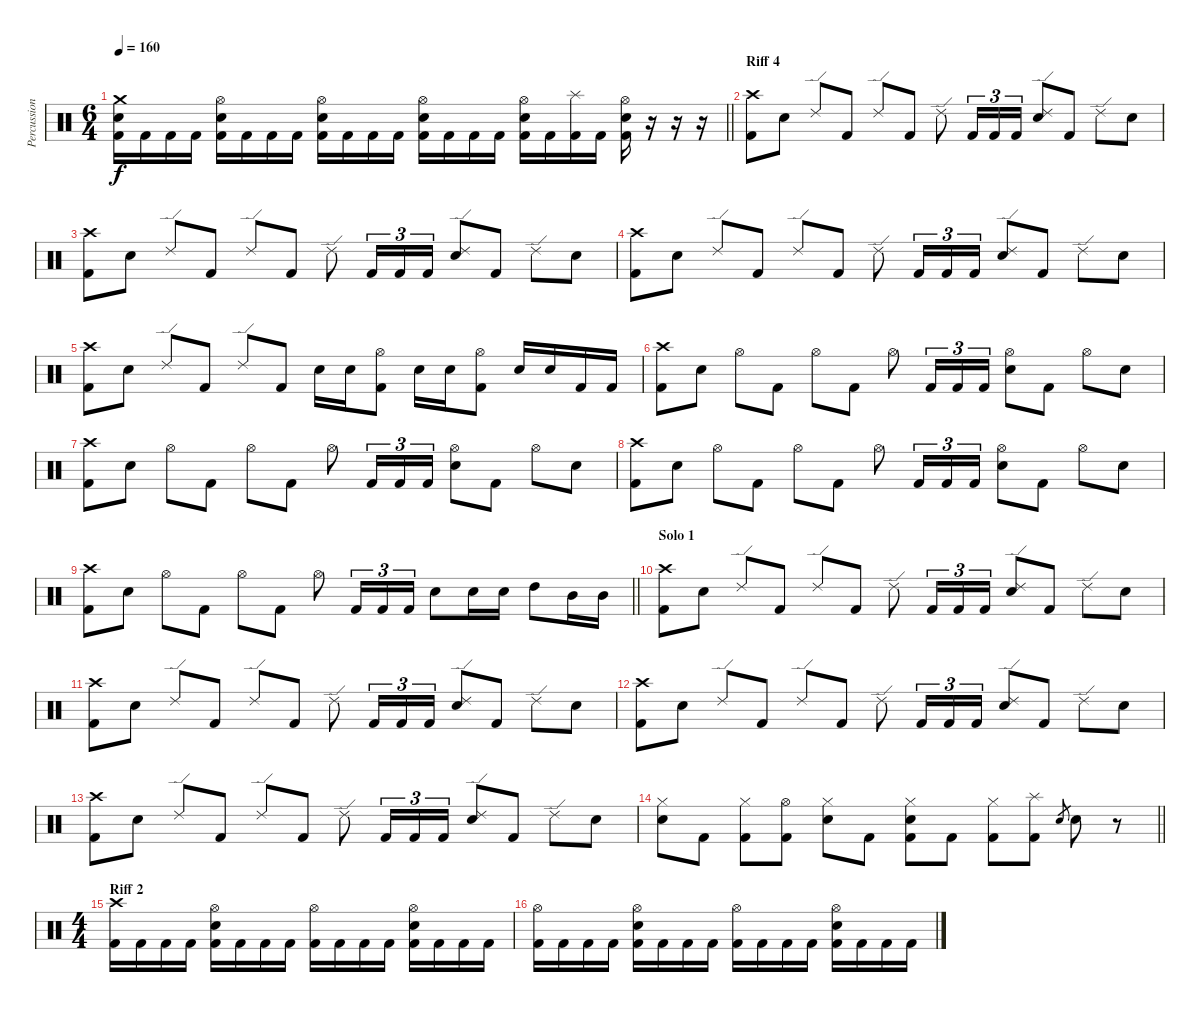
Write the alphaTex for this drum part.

\track ("Percussion" "Percussion") {instrument percussion}
\staff {score}
\articulation defaults
\ts (6 4)
\tempo 160
\clef neutral
\barLineRight lightlight
\ks c
("Snare (hit) 2" "Kick (hit) 2" "Crash medium (hit)").16{dy f} "Kick (hit) 2".16 "Kick (hit) 2".16 "Kick (hit) 2".16 ("Hi-Hat (open)" "Snare (hit) 2" "Kick (hit) 2").16 "Kick (hit) 2".16 "Kick (hit) 2".16 "Kick (hit) 2".16 ("Hi-Hat (open)" "Snare (hit) 2" "Kick (hit) 2").16 "Kick (hit) 2".16 "Kick (hit) 2".16 "Kick (hit) 2".16 ("Hi-Hat (open)" "Snare (hit) 2" "Kick (hit) 2").16 "Kick (hit) 2".16 "Kick (hit) 2".16 "Kick (hit) 2".16 ("Hi-Hat (open)" "Snare (hit) 2" "Kick (hit) 2").16 "Kick (hit) 2".16 ("Splash (hit)" "Kick (hit) 2").16 "Kick (hit) 2".16 ("Snare (hit) 2" "Hi-Hat (open)" "Kick (hit) 2").16 r.16 r.16 r.16 |
\section ("" "Riff 4")
("Crash high (hit)" "Kick (hit) 2").8 "Snare (hit) 2".8 "Ride (edge) 2".8 "Kick (hit) 2".8 "Ride (edge) 2".8 "Kick (hit) 2".8 "Ride (edge) 2".8 "Kick (hit) 2".16{tu (3 2)} "Kick (hit) 2".16{tu (3 2)} "Kick (hit) 2".16{tu (3 2)} ("Ride (edge) 2" "Snare (hit) 2").8 "Kick (hit) 2".8 "Ride (edge) 2".8 "Snare (hit) 2".8 |
("Crash high (hit)" "Kick (hit) 2").8 "Snare (hit) 2".8 "Ride (edge) 2".8 "Kick (hit) 2".8 "Ride (edge) 2".8 "Kick (hit) 2".8 "Ride (edge) 2".8 "Kick (hit) 2".16{tu (3 2)} "Kick (hit) 2".16{tu (3 2)} "Kick (hit) 2".16{tu (3 2)} ("Ride (edge) 2" "Snare (hit) 2").8 "Kick (hit) 2".8 "Ride (edge) 2".8 "Snare (hit) 2".8 |
("Crash high (hit)" "Kick (hit) 2").8 "Snare (hit) 2".8 "Ride (edge) 2".8 "Kick (hit) 2".8 "Ride (edge) 2".8 "Kick (hit) 2".8 "Ride (edge) 2".8 "Kick (hit) 2".16{tu (3 2)} "Kick (hit) 2".16{tu (3 2)} "Kick (hit) 2".16{tu (3 2)} ("Ride (edge) 2" "Snare (hit) 2").8 "Kick (hit) 2".8 "Ride (edge) 2".8 "Snare (hit) 2".8 |
("Crash high (hit)" "Kick (hit) 2").8 "Snare (hit) 2".8 "Ride (edge) 2".8 "Kick (hit) 2".8 "Ride (edge) 2".8 "Kick (hit) 2".8 "Snare (hit) 2".16 "Snare (hit) 2".16 ("Kick (hit) 2" "Hi-Hat (open)").8 "Snare (hit) 2".16 "Snare (hit) 2".16 ("Kick (hit) 2" "Hi-Hat (open)").8 "Snare (hit) 2".16 "Snare (hit) 2".16 "Kick (hit) 2".16 "Kick (hit) 2".16 |
("Crash high (hit)" "Kick (hit) 2").8 "Snare (hit) 2".8 "Hi-Hat (open)".8 "Kick (hit) 2".8 "Hi-Hat (open)".8 "Kick (hit) 2".8 "Hi-Hat (open)".8 "Kick (hit) 2".16{tu (3 2)} "Kick (hit) 2".16{tu (3 2)} "Kick (hit) 2".16{tu (3 2)} ("Hi-Hat (open)" "Snare (hit) 2").8 "Kick (hit) 2".8 "Hi-Hat (open)".8 "Snare (hit) 2".8 |
("Crash high (hit)" "Kick (hit) 2").8 "Snare (hit) 2".8 "Hi-Hat (open)".8 "Kick (hit) 2".8 "Hi-Hat (open)".8 "Kick (hit) 2".8 "Hi-Hat (open)".8 "Kick (hit) 2".16{tu (3 2)} "Kick (hit) 2".16{tu (3 2)} "Kick (hit) 2".16{tu (3 2)} ("Hi-Hat (open)" "Snare (hit) 2").8 "Kick (hit) 2".8 "Hi-Hat (open)".8 "Snare (hit) 2".8 |
("Crash high (hit)" "Kick (hit) 2").8 "Snare (hit) 2".8 "Hi-Hat (open)".8 "Kick (hit) 2".8 "Hi-Hat (open)".8 "Kick (hit) 2".8 "Hi-Hat (open)".8 "Kick (hit) 2".16{tu (3 2)} "Kick (hit) 2".16{tu (3 2)} "Kick (hit) 2".16{tu (3 2)} ("Hi-Hat (open)" "Snare (hit) 2").8 "Kick (hit) 2".8 "Hi-Hat (open)".8 "Snare (hit) 2".8 |
\barLineRight lightlight
("Crash high (hit)" "Kick (hit) 2").8 "Snare (hit) 2".8 "Hi-Hat (open)".8 "Kick (hit) 2".8 "Hi-Hat (open)".8 "Kick (hit) 2".8 "Hi-Hat (open)".8 "Kick (hit) 2".16{tu (3 2)} "Kick (hit) 2".16{tu (3 2)} "Kick (hit) 2".16{tu (3 2)} "Snare (hit) 2".8 "Snare (hit) 2".16 "Snare (hit) 2".16 "High Tom (hit)".8 "Mid Tom (hit)".16 "Mid Tom (hit)".16 |
\section ("" "Solo 1")
("Crash high (hit)" "Kick (hit) 2").8 "Snare (hit) 2".8 "Ride (edge) 2".8 "Kick (hit) 2".8 "Ride (edge) 2".8 "Kick (hit) 2".8 "Ride (edge) 2".8 "Kick (hit) 2".16{tu (3 2)} "Kick (hit) 2".16{tu (3 2)} "Kick (hit) 2".16{tu (3 2)} ("Ride (edge) 2" "Snare (hit) 2").8 "Kick (hit) 2".8 "Ride (edge) 2".8 "Snare (hit) 2".8 |
("Crash high (hit)" "Kick (hit) 2").8 "Snare (hit) 2".8 "Ride (edge) 2".8 "Kick (hit) 2".8 "Ride (edge) 2".8 "Kick (hit) 2".8 "Ride (edge) 2".8 "Kick (hit) 2".16{tu (3 2)} "Kick (hit) 2".16{tu (3 2)} "Kick (hit) 2".16{tu (3 2)} ("Ride (edge) 2" "Snare (hit) 2").8 "Kick (hit) 2".8 "Ride (edge) 2".8 "Snare (hit) 2".8 |
("Crash high (hit)" "Kick (hit) 2").8 "Snare (hit) 2".8 "Ride (edge) 2".8 "Kick (hit) 2".8 "Ride (edge) 2".8 "Kick (hit) 2".8 "Ride (edge) 2".8 "Kick (hit) 2".16{tu (3 2)} "Kick (hit) 2".16{tu (3 2)} "Kick (hit) 2".16{tu (3 2)} ("Ride (edge) 2" "Snare (hit) 2").8 "Kick (hit) 2".8 "Ride (edge) 2".8 "Snare (hit) 2".8 |
("Crash high (hit)" "Kick (hit) 2").8 "Snare (hit) 2".8 "Ride (edge) 2".8 "Kick (hit) 2".8 "Ride (edge) 2".8 "Kick (hit) 2".8 "Ride (edge) 2".8 "Kick (hit) 2".16{tu (3 2)} "Kick (hit) 2".16{tu (3 2)} "Kick (hit) 2".16{tu (3 2)} ("Ride (edge) 2" "Snare (hit) 2").8 "Kick (hit) 2".8 "Ride (edge) 2".8 "Snare (hit) 2".8 |
\barLineRight lightlight
("Hi-Hat (closed)" "Snare (hit) 2").8 "Kick (hit) 2".8 ("Hi-Hat (closed)" "Kick (hit) 2").8 ("Hi-Hat (open)" "Kick (hit) 2").8 ("Hi-Hat (closed)" "Snare (hit) 2").8 "Kick (hit) 2".8 ("Hi-Hat (closed)" "Snare (hit) 2" "Kick (hit) 2").8 "Kick (hit) 2".8 ("Hi-Hat (closed)" "Kick (hit) 2").8 ("Splash (hit)" "Kick (hit) 2").8 "Snare (hit) 2".8{gr} "Snare (hit) 2".8 r.8 |
\ts (4 4)
\section ("" "Riff 2")
("Crash high (hit)" "Kick (hit) 2").16 "Kick (hit) 2".16 "Kick (hit) 2".16 "Kick (hit) 2".16 ("Hi-Hat (open)" "Snare (hit) 2" "Kick (hit) 2").16 "Kick (hit) 2".16 "Kick (hit) 2".16 "Kick (hit) 2".16 ("Hi-Hat (open)" "Kick (hit) 2").16 "Kick (hit) 2".16 "Kick (hit) 2".16 "Kick (hit) 2".16 ("Hi-Hat (open)" "Snare (hit) 2" "Kick (hit) 2").16 "Kick (hit) 2".16 "Kick (hit) 2".16 "Kick (hit) 2".16 |
("Hi-Hat (open)" "Kick (hit) 2").16 "Kick (hit) 2".16 "Kick (hit) 2".16 "Kick (hit) 2".16 ("Hi-Hat (open)" "Snare (hit) 2" "Kick (hit) 2").16 "Kick (hit) 2".16 "Kick (hit) 2".16 "Kick (hit) 2".16 ("Hi-Hat (open)" "Kick (hit) 2").16 "Kick (hit) 2".16 "Kick (hit) 2".16 "Kick (hit) 2".16 ("Hi-Hat (open)" "Snare (hit) 2" "Kick (hit) 2").16 "Kick (hit) 2".16 "Kick (hit) 2".16 "Kick (hit) 2".16
